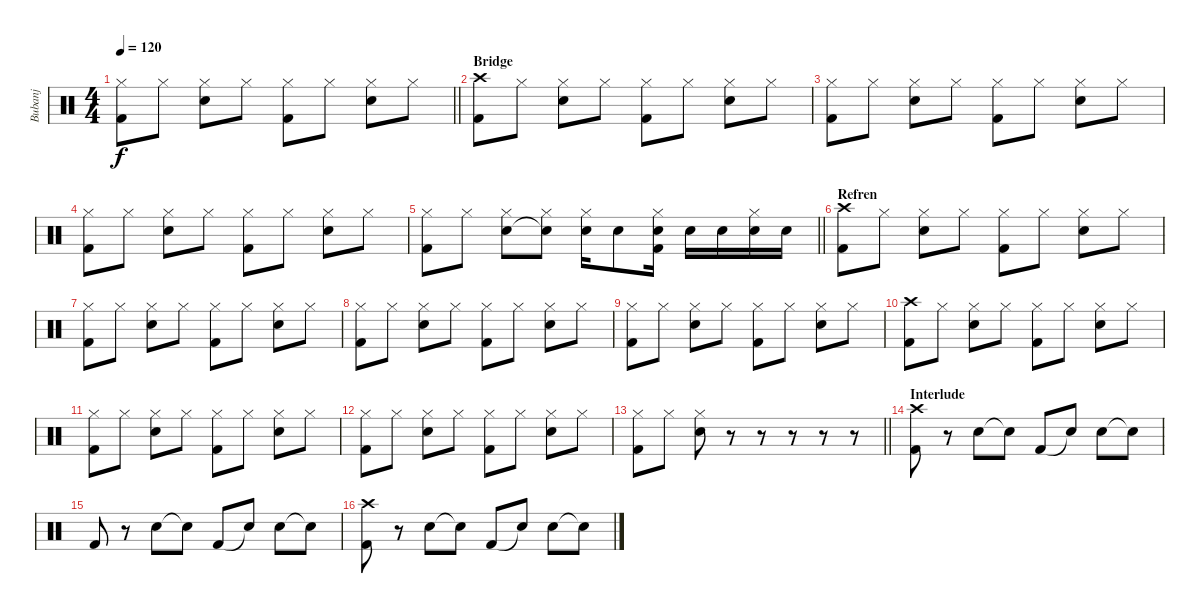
\track ("Bubanj" "Bubanj") {instrument percussion}
\staff {score}
\articulation defaults
\ts (4 4)
\tempo 120
\clef neutral
\barLineRight lightlight
\ks c
("Hi-Hat (closed)" "Kick (hit) 2").8{dy f} "Hi-Hat (closed)".8 ("Hi-Hat (closed)" "Electric Snare (hit)").8 "Hi-Hat (closed)".8 ("Hi-Hat (closed)" "Kick (hit) 2").8 "Hi-Hat (closed)".8 ("Hi-Hat (closed)" "Electric Snare (hit)").8 "Hi-Hat (closed)".8 |
\section ("" "Bridge")
("Crash high (hit)" "Kick (hit) 2").8 "Hi-Hat (closed)".8 ("Hi-Hat (closed)" "Electric Snare (hit)").8 "Hi-Hat (closed)".8 ("Hi-Hat (closed)" "Kick (hit) 2").8 "Hi-Hat (closed)".8 ("Hi-Hat (closed)" "Electric Snare (hit)").8 "Hi-Hat (closed)".8 |
("Hi-Hat (closed)" "Kick (hit) 2").8 "Hi-Hat (closed)".8 ("Hi-Hat (closed)" "Electric Snare (hit)").8 "Hi-Hat (closed)".8 ("Hi-Hat (closed)" "Kick (hit) 2").8 "Hi-Hat (closed)".8 ("Hi-Hat (closed)" "Electric Snare (hit)").8 "Hi-Hat (closed)".8 |
("Hi-Hat (closed)" "Kick (hit) 2").8 "Hi-Hat (closed)".8 ("Hi-Hat (closed)" "Electric Snare (hit)").8 "Hi-Hat (closed)".8 ("Hi-Hat (closed)" "Kick (hit) 2").8 "Hi-Hat (closed)".8 ("Hi-Hat (closed)" "Electric Snare (hit)").8 "Hi-Hat (closed)".8 |
\barLineRight lightlight
("Hi-Hat (closed)" "Kick (hit) 2").8 "Hi-Hat (closed)".8 ("Hi-Hat (closed)" "Electric Snare (hit)").8 ("Hi-Hat (closed)" "Snare (hit)"{t}).8 ("Hi-Hat (closed)" "Electric Snare (hit)").16 "Electric Snare (hit)".8 ("Hi-Hat (closed)" "Electric Snare (hit)" "Kick (hit) 2").16 "Electric Snare (hit)".16 "Electric Snare (hit)".16 ("Hi-Hat (closed)" "Electric Snare (hit)").16 "Electric Snare (hit)".16 |
\section ("" "Refren")
("Crash high (hit)" "Kick (hit) 2").8 "Hi-Hat (closed)".8 ("Hi-Hat (closed)" "Electric Snare (hit)").8 "Hi-Hat (closed)".8 ("Hi-Hat (closed)" "Kick (hit) 2").8 "Hi-Hat (closed)".8 ("Hi-Hat (closed)" "Electric Snare (hit)").8 "Hi-Hat (closed)".8 |
("Hi-Hat (closed)" "Kick (hit) 2").8 "Hi-Hat (closed)".8 ("Hi-Hat (closed)" "Electric Snare (hit)").8 "Hi-Hat (closed)".8 ("Hi-Hat (closed)" "Kick (hit) 2").8 "Hi-Hat (closed)".8 ("Hi-Hat (closed)" "Electric Snare (hit)").8 "Hi-Hat (closed)".8 |
("Hi-Hat (closed)" "Kick (hit) 2").8 "Hi-Hat (closed)".8 ("Hi-Hat (closed)" "Electric Snare (hit)").8 "Hi-Hat (closed)".8 ("Hi-Hat (closed)" "Kick (hit) 2").8 "Hi-Hat (closed)".8 ("Hi-Hat (closed)" "Electric Snare (hit)").8 "Hi-Hat (closed)".8 |
("Hi-Hat (closed)" "Kick (hit) 2").8 "Hi-Hat (closed)".8 ("Hi-Hat (closed)" "Electric Snare (hit)").8 "Hi-Hat (closed)".8 ("Hi-Hat (closed)" "Kick (hit) 2").8 "Hi-Hat (closed)".8 ("Hi-Hat (closed)" "Electric Snare (hit)").8 "Hi-Hat (closed)".8 |
("Crash high (hit)" "Kick (hit) 2").8 "Hi-Hat (closed)".8 ("Hi-Hat (closed)" "Electric Snare (hit)").8 "Hi-Hat (closed)".8 ("Hi-Hat (closed)" "Kick (hit) 2").8 "Hi-Hat (closed)".8 ("Hi-Hat (closed)" "Electric Snare (hit)").8 "Hi-Hat (closed)".8 |
("Hi-Hat (closed)" "Kick (hit) 2").8 "Hi-Hat (closed)".8 ("Hi-Hat (closed)" "Electric Snare (hit)").8 "Hi-Hat (closed)".8 ("Hi-Hat (closed)" "Kick (hit) 2").8 "Hi-Hat (closed)".8 ("Hi-Hat (closed)" "Electric Snare (hit)").8 "Hi-Hat (closed)".8 |
("Hi-Hat (closed)" "Kick (hit) 2").8 "Hi-Hat (closed)".8 ("Hi-Hat (closed)" "Electric Snare (hit)").8 "Hi-Hat (closed)".8 ("Hi-Hat (closed)" "Kick (hit) 2").8 "Hi-Hat (closed)".8 ("Hi-Hat (closed)" "Electric Snare (hit)").8 "Hi-Hat (closed)".8 |
\barLineRight lightlight
("Hi-Hat (closed)" "Kick (hit) 2").8 "Hi-Hat (closed)".8 ("Hi-Hat (closed)" "Electric Snare (hit)").8 r.8 r.8 r.8 r.8 r.8 |
\section ("" "Interlude")
("Crash high (hit)" "Kick (hit) 2").8 r.8 "Hand Clap (hit)".8 "Snare (hit)"{t}.8 "Kick (hit) 2".8 "Snare (hit)"{t}.8 "Hand Clap (hit)".8 "Snare (hit)"{t}.8 |
"Kick (hit) 2".8 r.8 "Hand Clap (hit)".8 "Snare (hit)"{t}.8 "Kick (hit) 2".8 "Snare (hit)"{t}.8 "Hand Clap (hit)".8 "Snare (hit)"{t}.8 |
("Crash high (hit)" "Kick (hit) 2").8 r.8 "Hand Clap (hit)".8 "Snare (hit)"{t}.8 "Kick (hit) 2".8 "Snare (hit)"{t}.8 "Hand Clap (hit)".8 "Snare (hit)"{t}.8
